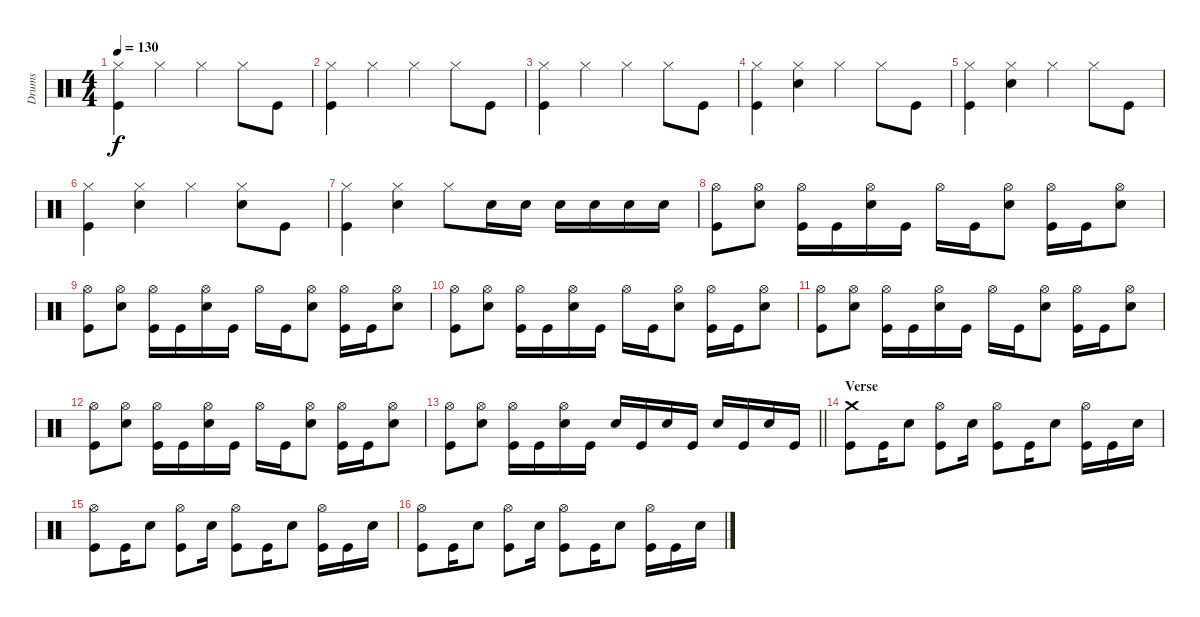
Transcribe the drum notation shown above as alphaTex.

\track ("Drums" "Drums") {instrument percussion}
\staff {score}
\articulation defaults
\ts (4 4)
\tempo 130
\clef neutral
\ks c
("Hi-Hat (closed)" "Kick (hit)").4{dy f} "Hi-Hat (closed)".4 "Hi-Hat (closed)".4 "Hi-Hat (closed)".8 "Kick (hit)".8 |
("Hi-Hat (closed)" "Kick (hit)").4 "Hi-Hat (closed)".4 "Hi-Hat (closed)".4 "Hi-Hat (closed)".8 "Kick (hit)".8 |
("Hi-Hat (closed)" "Kick (hit)").4 "Hi-Hat (closed)".4 "Hi-Hat (closed)".4 "Hi-Hat (closed)".8 "Kick (hit)".8 |
("Hi-Hat (closed)" "Kick (hit)").4 ("Hi-Hat (closed)" "Snare (hit) 2").4 "Hi-Hat (closed)".4 "Hi-Hat (closed)".8 "Kick (hit)".8 |
("Hi-Hat (closed)" "Kick (hit)").4 ("Hi-Hat (closed)" "Snare (hit) 2").4 "Hi-Hat (closed)".4 "Hi-Hat (closed)".8 "Kick (hit)".8 |
("Hi-Hat (closed)" "Kick (hit)").4 ("Hi-Hat (closed)" "Snare (hit) 2").4 "Hi-Hat (closed)".4 ("Hi-Hat (closed)" "Snare (hit) 2").8 "Kick (hit)".8 |
("Hi-Hat (closed)" "Kick (hit)").4 ("Hi-Hat (closed)" "Snare (hit) 2").4 "Hi-Hat (closed)".8 "Snare (hit) 2".16 "Snare (hit) 2".16 "Snare (hit) 2".16 "Snare (hit) 2".16 "Snare (hit) 2".16 "Snare (hit) 2".16 |
("Hi-Hat (open)" "Kick (hit)").8 ("Hi-Hat (open)" "Snare (hit) 2").8 ("Hi-Hat (open)" "Kick (hit)").16 "Kick (hit)".16 ("Hi-Hat (open)" "Snare (hit) 2").16 "Kick (hit)".16 "Hi-Hat (open)".16 "Kick (hit)".16 ("Hi-Hat (open)" "Snare (hit) 2").8 ("Hi-Hat (open)" "Kick (hit)").16 "Kick (hit)".16 ("Hi-Hat (open)" "Snare (hit) 2").8 |
("Hi-Hat (open)" "Kick (hit)").8 ("Hi-Hat (open)" "Snare (hit) 2").8 ("Hi-Hat (open)" "Kick (hit)").16 "Kick (hit)".16 ("Hi-Hat (open)" "Snare (hit) 2").16 "Kick (hit)".16 "Hi-Hat (open)".16 "Kick (hit)".16 ("Hi-Hat (open)" "Snare (hit) 2").8 ("Hi-Hat (open)" "Kick (hit)").16 "Kick (hit)".16 ("Hi-Hat (open)" "Snare (hit) 2").8 |
("Hi-Hat (open)" "Kick (hit)").8 ("Hi-Hat (open)" "Snare (hit) 2").8 ("Hi-Hat (open)" "Kick (hit)").16 "Kick (hit)".16 ("Hi-Hat (open)" "Snare (hit) 2").16 "Kick (hit)".16 "Hi-Hat (open)".16 "Kick (hit)".16 ("Hi-Hat (open)" "Snare (hit) 2").8 ("Hi-Hat (open)" "Kick (hit)").16 "Kick (hit)".16 ("Hi-Hat (open)" "Snare (hit) 2").8 |
("Hi-Hat (open)" "Kick (hit)").8 ("Hi-Hat (open)" "Snare (hit) 2").8 ("Hi-Hat (open)" "Kick (hit)").16 "Kick (hit)".16 ("Hi-Hat (open)" "Snare (hit) 2").16 "Kick (hit)".16 "Hi-Hat (open)".16 "Kick (hit)".16 ("Hi-Hat (open)" "Snare (hit) 2").8 ("Hi-Hat (open)" "Kick (hit)").16 "Kick (hit)".16 ("Hi-Hat (open)" "Snare (hit) 2").8 |
("Hi-Hat (open)" "Kick (hit)").8 ("Hi-Hat (open)" "Snare (hit) 2").8 ("Hi-Hat (open)" "Kick (hit)").16 "Kick (hit)".16 ("Hi-Hat (open)" "Snare (hit) 2").16 "Kick (hit)".16 "Hi-Hat (open)".16 "Kick (hit)".16 ("Hi-Hat (open)" "Snare (hit) 2").8 ("Hi-Hat (open)" "Kick (hit)").16 "Kick (hit)".16 ("Hi-Hat (open)" "Snare (hit) 2").8 |
\barLineRight lightlight
("Hi-Hat (open)" "Kick (hit)").8 ("Hi-Hat (open)" "Snare (hit) 2").8 ("Hi-Hat (open)" "Kick (hit)").16 "Kick (hit)".16 ("Hi-Hat (open)" "Snare (hit) 2").16 "Kick (hit)".16 "Snare (hit) 2".16 "Kick (hit)".16 "Snare (hit) 2".16 "Kick (hit)".16 "Snare (hit) 2".16 "Kick (hit)".16 "Snare (hit) 2".16 "Kick (hit)".16 |
\section ("" "Verse")
("Crash medium (hit)" "Kick (hit)").8 "Kick (hit)".16 "Snare (hit) 2".8 ("Hi-Hat (open)" "Kick (hit)").8 "Snare (hit) 2".16 ("Hi-Hat (open)" "Kick (hit)").8 "Kick (hit)".16 "Snare (hit) 2".8 ("Hi-Hat (open)" "Kick (hit)").16 "Kick (hit)".16 "Snare (hit) 2".16 |
("Hi-Hat (open)" "Kick (hit)").8 "Kick (hit)".16 "Snare (hit) 2".8 ("Hi-Hat (open)" "Kick (hit)").8 "Snare (hit) 2".16 ("Hi-Hat (open)" "Kick (hit)").8 "Kick (hit)".16 "Snare (hit) 2".8 ("Hi-Hat (open)" "Kick (hit)").16 "Kick (hit)".16 "Snare (hit) 2".16 |
("Hi-Hat (open)" "Kick (hit)").8 "Kick (hit)".16 "Snare (hit) 2".8 ("Hi-Hat (open)" "Kick (hit)").8 "Snare (hit) 2".16 ("Hi-Hat (open)" "Kick (hit)").8 "Kick (hit)".16 "Snare (hit) 2".8 ("Hi-Hat (open)" "Kick (hit)").16 "Kick (hit)".16 "Snare (hit) 2".16
